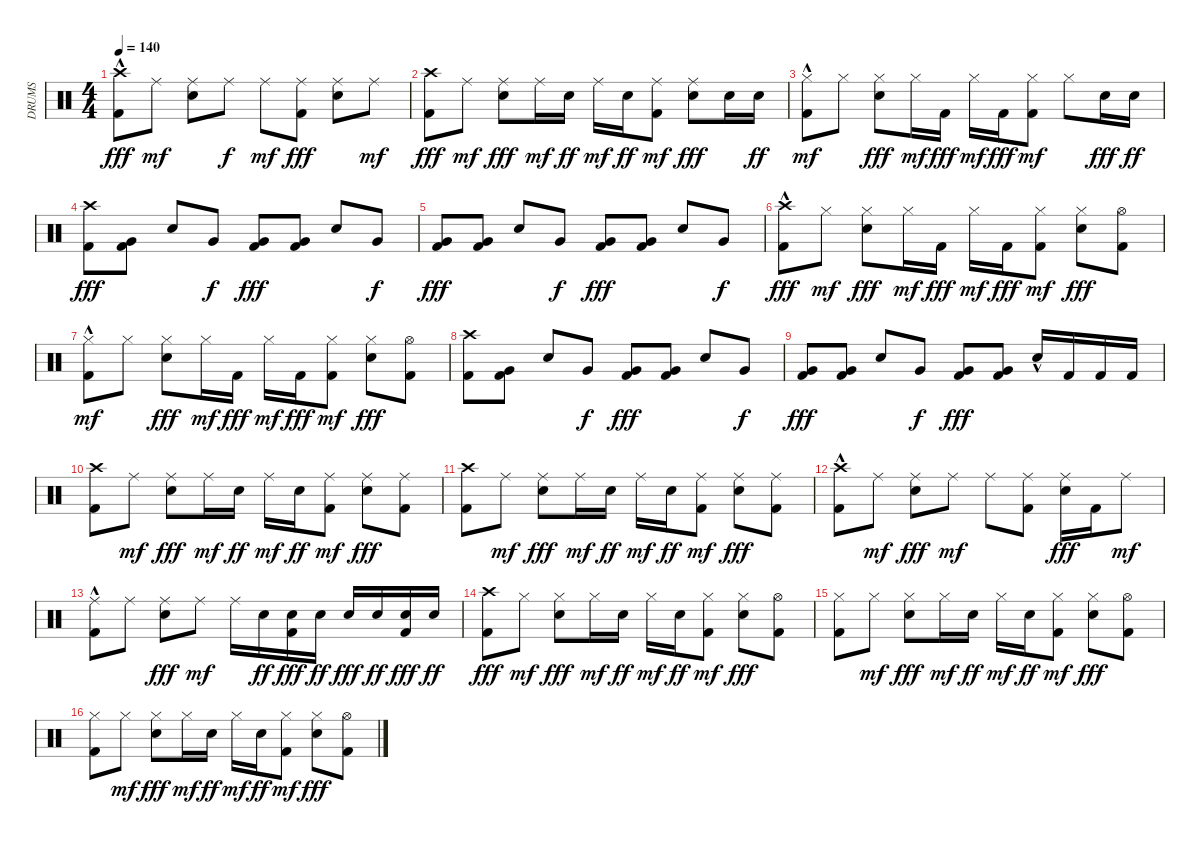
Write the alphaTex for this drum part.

\track ("DRUMS" "DRUMS") {instrument percussion}
\staff {score}
\articulation defaults
\ts (4 4)
\tempo 140
\clef neutral
\ks c
("Kick (hit) 2"{hac} "Crash high (hit)").8{dy fff} "Ride (middle)".8{dy mf} ("Electric Snare (hit)" "Ride (middle)").8 "Ride (middle)".8{dy f} "Ride (middle)".8{dy mf} ("Ride (middle)" "Kick (hit) 2").8{dy fff} ("Electric Snare (hit)" "Ride (middle)").8 "Ride (middle)".8{dy mf} |
("Kick (hit) 2" "Crash high (hit)").8{dy fff} "Ride (middle)".8{dy mf} ("Ride (middle)" "Electric Snare (hit)").8{dy fff} "Ride (middle)".16{dy mf} "Electric Snare (hit)".16{dy ff} "Ride (middle)".16{dy mf} "Electric Snare (hit)".16{dy ff} ("Kick (hit) 2" "Ride (middle)").8{dy mf} ("Ride (middle)" "Electric Snare (hit)").8{dy fff} "Electric Snare (hit)".16 "Electric Snare (hit)".16{dy ff} |
("Kick (hit) 2"{hac} "Hi-Hat (closed)").8{dy mf} "Hi-Hat (closed)".8 ("Electric Snare (hit)" "Hi-Hat (closed)").8{dy fff} "Hi-Hat (closed)".16{dy mf} "Kick (hit) 2".16{dy fff} "Hi-Hat (closed)".16{dy mf} "Kick (hit) 2".16{dy fff} ("Kick (hit) 2" "Hi-Hat (closed)").8{dy mf} "Hi-Hat (closed)".8 "Electric Snare (hit)".16{dy fff} "Electric Snare (hit)".16{dy ff} |
("Kick (hit) 2" "Crash high (hit)").8{dy fff} ("Kick (hit) 2" "Very Low Tom (hit)").8 "Electric Snare (hit)".8 "Very Low Tom (hit)".8{dy f} ("Kick (hit) 2" "Very Low Tom (hit)").8{dy fff} ("Kick (hit) 2" "Very Low Tom (hit)").8 "Electric Snare (hit)".8 "Very Low Tom (hit)".8{dy f} |
("Kick (hit) 2" "Very Low Tom (hit)").8{dy fff} ("Kick (hit) 2" "Very Low Tom (hit)").8 "Electric Snare (hit)".8 "Very Low Tom (hit)".8{dy f} ("Kick (hit) 2" "Very Low Tom (hit)").8{dy fff} ("Kick (hit) 2" "Very Low Tom (hit)").8 "Electric Snare (hit)".8 "Very Low Tom (hit)".8{dy f} |
("Kick (hit) 2"{hac} "Crash high (hit)").8{dy fff} "Hi-Hat (closed)".8{dy mf} ("Electric Snare (hit)" "Hi-Hat (closed)").8{dy fff} "Hi-Hat (closed)".16{dy mf} "Kick (hit) 2".16{dy fff} "Hi-Hat (closed)".16{dy mf} "Kick (hit) 2".16{dy fff} ("Kick (hit) 2" "Hi-Hat (closed)").8{dy mf} ("Electric Snare (hit)" "Hi-Hat (closed)").8{dy fff} ("Kick (hit) 2" "Hi-Hat (open)").8 |
("Kick (hit) 2"{hac} "Hi-Hat (closed)").8{dy mf} "Hi-Hat (closed)".8 ("Electric Snare (hit)" "Hi-Hat (closed)").8{dy fff} "Hi-Hat (closed)".16{dy mf} "Kick (hit) 2".16{dy fff} "Hi-Hat (closed)".16{dy mf} "Kick (hit) 2".16{dy fff} ("Kick (hit) 2" "Hi-Hat (closed)").8{dy mf} ("Electric Snare (hit)" "Hi-Hat (closed)").8{dy fff} ("Kick (hit) 2" "Hi-Hat (open)").8 |
("Kick (hit) 2" "Crash high (hit)").8 ("Kick (hit) 2" "Very Low Tom (hit)").8 "Electric Snare (hit)".8 "Very Low Tom (hit)".8{dy f} ("Kick (hit) 2" "Very Low Tom (hit)").8{dy fff} ("Kick (hit) 2" "Very Low Tom (hit)").8 "Electric Snare (hit)".8 "Very Low Tom (hit)".8{dy f} |
("Kick (hit) 2" "Very Low Tom (hit)").8{dy fff} ("Kick (hit) 2" "Very Low Tom (hit)").8 "Electric Snare (hit)".8 "Very Low Tom (hit)".8{dy f} ("Kick (hit) 2" "Very Low Tom (hit)").8{dy fff} ("Kick (hit) 2" "Very Low Tom (hit)").8 "Electric Snare (hit)"{hac}.16 "Kick (hit) 2".16 "Kick (hit) 2".16 "Kick (hit) 2".16 |
("Kick (hit) 2" "Crash high (hit)").8 "Ride (middle)".8{dy mf} ("Ride (middle)" "Electric Snare (hit)").8{dy fff} "Ride (middle)".16{dy mf} "Electric Snare (hit)".16{dy ff} "Ride (middle)".16{dy mf} "Electric Snare (hit)".16{dy ff} ("Kick (hit) 2" "Ride (middle)").8{dy mf} ("Ride (middle)" "Electric Snare (hit)").8{dy fff} ("Ride (middle)" "Kick (hit) 2").8 |
("Kick (hit) 2" "Crash high (hit)").8 "Ride (middle)".8{dy mf} ("Ride (middle)" "Electric Snare (hit)").8{dy fff} "Ride (middle)".16{dy mf} "Electric Snare (hit)".16{dy ff} "Ride (middle)".16{dy mf} "Electric Snare (hit)".16{dy ff} ("Kick (hit) 2" "Ride (middle)").8{dy mf} ("Ride (middle)" "Electric Snare (hit)").8{dy fff} ("Ride (middle)" "Kick (hit) 2").8 |
("Kick (hit) 2"{hac} "Crash high (hit)").8 "Ride (middle)".8{dy mf} ("Electric Snare (hit)" "Ride (middle)").8{dy fff} "Ride (middle)".8{dy mf} "Ride (middle)".8 ("Kick (hit) 2" "Ride (middle)").8 ("Electric Snare (hit)" "Ride (middle)").16{dy fff} "Kick (hit) 2".16 "Ride (middle)".8{dy mf} |
("Kick (hit) 2"{hac} "Ride (middle)").8 "Ride (middle)".8 ("Electric Snare (hit)" "Ride (middle)").8{dy fff} "Ride (middle)".8{dy mf} "Ride (middle)".16 "Electric Snare (hit)".16{dy ff} ("Kick (hit) 2" "Electric Snare (hit)").16{dy fff} "Electric Snare (hit)".16{dy ff} "Electric Snare (hit)".16{dy fff} "Electric Snare (hit)".16{dy ff} ("Kick (hit) 2" "Electric Snare (hit)").16{dy fff} "Electric Snare (hit)".16{dy ff} |
("Kick (hit) 2" "Crash high (hit)").8{dy fff} "Hi-Hat (closed)".8{dy mf} ("Hi-Hat (closed)" "Electric Snare (hit)").8{dy fff} "Hi-Hat (closed)".16{dy mf} "Electric Snare (hit)".16{dy ff} "Hi-Hat (closed)".16{dy mf} "Electric Snare (hit)".16{dy ff} ("Kick (hit) 2" "Hi-Hat (closed)").8{dy mf} ("Hi-Hat (closed)" "Electric Snare (hit)").8{dy fff} ("Kick (hit) 2" "Hi-Hat (open)").8 |
("Kick (hit) 2" "Hi-Hat (closed)").8 "Hi-Hat (closed)".8{dy mf} ("Hi-Hat (closed)" "Electric Snare (hit)").8{dy fff} "Hi-Hat (closed)".16{dy mf} "Electric Snare (hit)".16{dy ff} "Hi-Hat (closed)".16{dy mf} "Electric Snare (hit)".16{dy ff} ("Kick (hit) 2" "Hi-Hat (closed)").8{dy mf} ("Hi-Hat (closed)" "Electric Snare (hit)").8{dy fff} ("Kick (hit) 2" "Hi-Hat (open)").8 |
("Kick (hit) 2" "Hi-Hat (closed)").8 "Hi-Hat (closed)".8{dy mf} ("Hi-Hat (closed)" "Electric Snare (hit)").8{dy fff} "Hi-Hat (closed)".16{dy mf} "Electric Snare (hit)".16{dy ff} "Hi-Hat (closed)".16{dy mf} "Electric Snare (hit)".16{dy ff} ("Kick (hit) 2" "Hi-Hat (closed)").8{dy mf} ("Hi-Hat (closed)" "Electric Snare (hit)").8{dy fff} ("Kick (hit) 2" "Hi-Hat (open)").8
